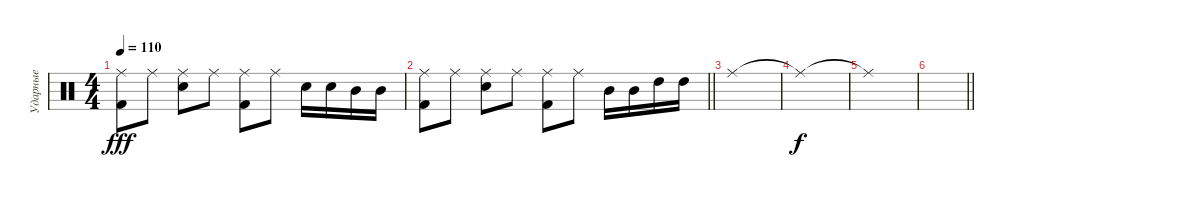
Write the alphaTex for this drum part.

\track ("Ударные" "Ударные") {instrument percussion}
\staff {score}
\articulation defaults
\ts (4 4)
\tempo 110
\clef neutral
\ks c
("Kick (hit) 2" "Ride (middle)").8{dy fff} "Ride (middle)".8 ("Electric Snare (hit)" "Ride (middle)").8 "Ride (middle)".8 ("Kick (hit) 2" "Ride (middle)").8 "Ride (middle)".8 "Electric Snare (hit)".16 "Electric Snare (hit)".16 "Mid Tom (hit)".16 "Mid Tom (hit)".16 |
\barLineRight lightlight
("Kick (hit) 2" "Ride (middle)").8 "Ride (middle)".8 ("Electric Snare (hit)" "Ride (middle)").8 "Ride (middle)".8 ("Kick (hit) 2" "Ride (middle)").8 "Ride (middle)".8 "Mid Tom (hit)".16 "Mid Tom (hit)".16 "High Tom (hit)".16 "High Tom (hit)".16 |
"Ride (middle)".1{volume 5} |
"Ride (middle)"{t}.1{dy f} |
"Ride (middle)"{t}.1 |
\barLineRight lightlight
